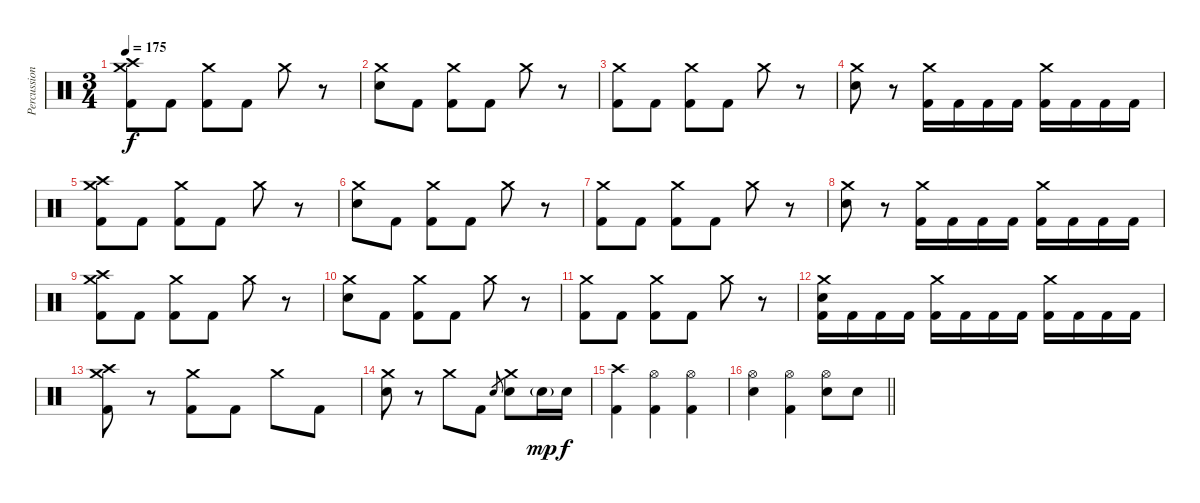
\track ("Percussion" "Percussion") {instrument percussion}
\staff {score}
\articulation defaults
\ts (3 4)
\tempo 175
\clef neutral
\ks c
("Crash high (hit)" "Crash medium (hit)" "Kick (hit) 2").8{dy f} "Kick (hit) 2".8 ("Crash medium (hit)" "Kick (hit) 2").8 "Kick (hit) 2".8 "Crash medium (hit)".8 r.8 |
("Crash medium (hit)" "Electric Snare (hit)").8 "Kick (hit) 2".8 ("Crash medium (hit)" "Kick (hit) 2").8 "Kick (hit) 2".8 "Crash medium (hit)".8 r.8 |
("Crash medium (hit)" "Kick (hit) 2").8 "Kick (hit) 2".8 ("Crash medium (hit)" "Kick (hit) 2").8 "Kick (hit) 2".8 "Crash medium (hit)".8 r.8 |
("Crash medium (hit)" "Electric Snare (hit)").8 r.8 ("Crash medium (hit)" "Kick (hit) 2").16 "Kick (hit) 2".16 "Kick (hit) 2".16 "Kick (hit) 2".16 ("Crash medium (hit)" "Kick (hit) 2").16 "Kick (hit) 2".16 "Kick (hit) 2".16 "Kick (hit) 2".16 |
("Crash high (hit)" "Crash medium (hit)" "Kick (hit) 2").8 "Kick (hit) 2".8 ("Crash medium (hit)" "Kick (hit) 2").8 "Kick (hit) 2".8 "Crash medium (hit)".8 r.8 |
("Crash medium (hit)" "Electric Snare (hit)").8 "Kick (hit) 2".8 ("Crash medium (hit)" "Kick (hit) 2").8 "Kick (hit) 2".8 "Crash medium (hit)".8 r.8 |
("Crash medium (hit)" "Kick (hit) 2").8 "Kick (hit) 2".8 ("Crash medium (hit)" "Kick (hit) 2").8 "Kick (hit) 2".8 "Crash medium (hit)".8 r.8 |
("Crash medium (hit)" "Electric Snare (hit)").8 r.8 ("Crash medium (hit)" "Kick (hit) 2").16 "Kick (hit) 2".16 "Kick (hit) 2".16 "Kick (hit) 2".16 ("Crash medium (hit)" "Kick (hit) 2").16 "Kick (hit) 2".16 "Kick (hit) 2".16 "Kick (hit) 2".16 |
("Crash high (hit)" "Crash medium (hit)" "Kick (hit) 2").8 "Kick (hit) 2".8 ("Crash medium (hit)" "Kick (hit) 2").8 "Kick (hit) 2".8 "Crash medium (hit)".8 r.8 |
("Crash medium (hit)" "Electric Snare (hit)").8 "Kick (hit) 2".8 ("Crash medium (hit)" "Kick (hit) 2").8 "Kick (hit) 2".8 "Crash medium (hit)".8 r.8 |
("Crash medium (hit)" "Kick (hit) 2").8 "Kick (hit) 2".8 ("Crash medium (hit)" "Kick (hit) 2").8 "Kick (hit) 2".8 "Crash medium (hit)".8 r.8 |
("Crash medium (hit)" "Electric Snare (hit)" "Kick (hit) 2").16 "Kick (hit) 2".16 "Kick (hit) 2".16 "Kick (hit) 2".16 ("Crash medium (hit)" "Kick (hit) 2").16 "Kick (hit) 2".16 "Kick (hit) 2".16 "Kick (hit) 2".16 ("Crash medium (hit)" "Kick (hit) 2").16 "Kick (hit) 2".16 "Kick (hit) 2".16 "Kick (hit) 2".16 |
("Crash high (hit)" "Crash medium (hit)" "Kick (hit) 2").8 r.8 ("Crash medium (hit)" "Kick (hit) 2").8 "Kick (hit) 2".8 "Crash medium (hit)".8 "Kick (hit) 2".8 |
("Crash medium (hit)" "Electric Snare (hit)").8 r.8 "Crash medium (hit)".8 "Kick (hit) 2".8 "Electric Snare (hit)".8{gr} ("Crash medium (hit)" "Electric Snare (hit)").8 "Electric Snare (hit)"{g}.16{dy mp} "Electric Snare (hit)".16{dy f} |
("Crash high (hit)" "Kick (hit) 2").4 ("Hi-Hat (open)" "Kick (hit) 2").4 ("Hi-Hat (open)" "Kick (hit) 2").4 |
\barLineRight lightlight
("Hi-Hat (open)" "Electric Snare (hit)").4 ("Hi-Hat (open)" "Kick (hit) 2").4 ("Hi-Hat (open)" "Electric Snare (hit)").8 "Electric Snare (hit)".8
